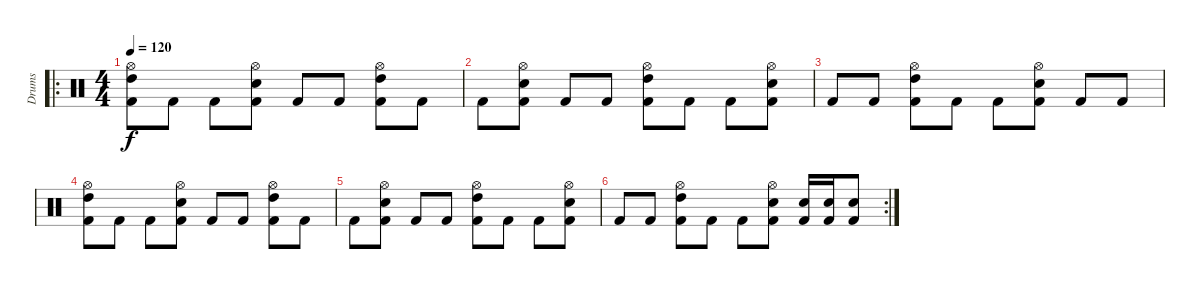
\track ("Drums" "Drums") {instrument percussion}
\staff {score}
\articulation defaults
\ro
\ts (4 4)
\tempo 120
\clef neutral
\ks c
("Hi-Hat (open)" "High Tom (hit)" "Kick (hit) 2").8{dy f} "Kick (hit) 2".8 "Kick (hit) 2".8 ("Hi-Hat (open)" "Snare (hit) 2" "Kick (hit) 2").8 "Kick (hit) 2".8 "Kick (hit) 2".8 ("Hi-Hat (open)" "High Tom (hit)" "Kick (hit) 2").8 "Kick (hit) 2".8 |
"Kick (hit) 2".8 ("Hi-Hat (open)" "Snare (hit) 2" "Kick (hit) 2").8 "Kick (hit) 2".8 "Kick (hit) 2".8 ("Hi-Hat (open)" "High Tom (hit)" "Kick (hit) 2").8 "Kick (hit) 2".8 "Kick (hit) 2".8 ("Hi-Hat (open)" "Snare (hit) 2" "Kick (hit) 2").8 |
"Kick (hit) 2".8 "Kick (hit) 2".8 ("Hi-Hat (open)" "High Tom (hit)" "Kick (hit) 2").8 "Kick (hit) 2".8 "Kick (hit) 2".8 ("Hi-Hat (open)" "Snare (hit) 2" "Kick (hit) 2").8 "Kick (hit) 2".8 "Kick (hit) 2".8 |
("Hi-Hat (open)" "High Tom (hit)" "Kick (hit) 2").8 "Kick (hit) 2".8 "Kick (hit) 2".8 ("Hi-Hat (open)" "Snare (hit) 2" "Kick (hit) 2").8 "Kick (hit) 2".8 "Kick (hit) 2".8 ("Hi-Hat (open)" "High Tom (hit)" "Kick (hit) 2").8 "Kick (hit) 2".8 |
"Kick (hit) 2".8 ("Hi-Hat (open)" "Snare (hit) 2" "Kick (hit) 2").8 "Kick (hit) 2".8 "Kick (hit) 2".8 ("Hi-Hat (open)" "High Tom (hit)" "Kick (hit) 2").8 "Kick (hit) 2".8 "Kick (hit) 2".8 ("Hi-Hat (open)" "Snare (hit) 2" "Kick (hit) 2").8 |
\rc 2 "Kick (hit) 2".8 "Kick (hit) 2".8
("Hi-Hat (open)" "High Tom (hit)" "Kick (hit) 2").8 "Kick (hit) 2".8 "Kick (hit) 2".8 ("Hi-Hat (open)" "Snare (hit) 2" "Kick (hit) 2").8 ("Snare (hit) 2" "Kick (hit) 2").16 ("Snare (hit) 2" "Kick (hit) 2").16 ("Snare (hit) 2" "Kick (hit) 2").8
